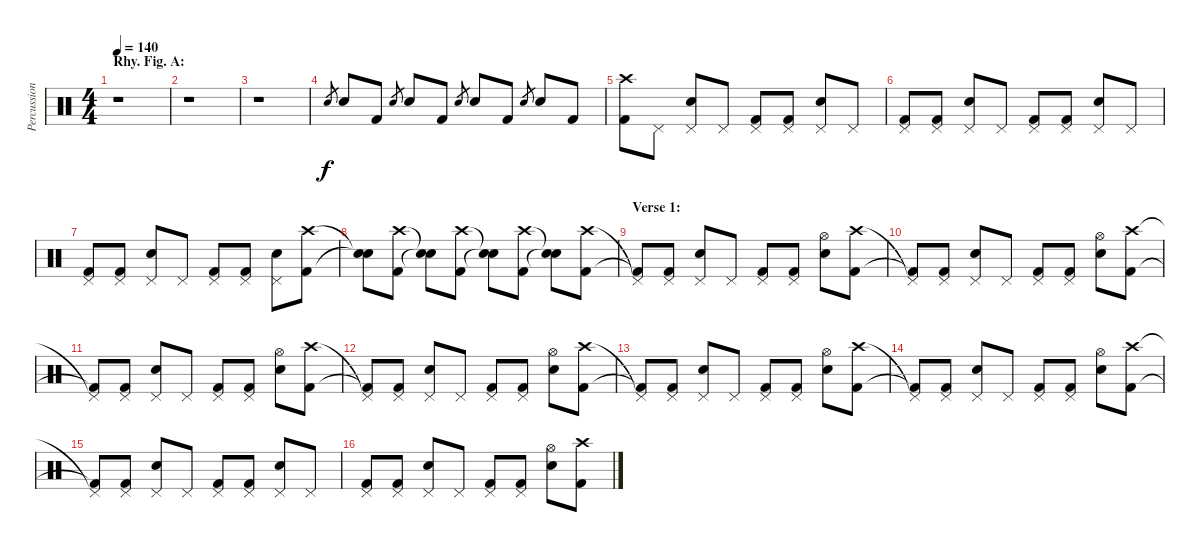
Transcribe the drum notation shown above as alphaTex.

\track ("Percussion" "Percussion") {instrument percussion}
\staff {score}
\articulation defaults
\ts (4 4)
\section ("" "Rhy. Fig. A:")
\tempo 140
\clef neutral
\ks c
r.1{dy f} |
r.1 |
r.1 |
"Snare (hit) 2".8{gr} "Snare (hit) 2".8 "Kick (hit) 2".8 "Snare (hit) 2".8{gr} "Snare (hit) 2".8 "Kick (hit) 2".8 "Snare (hit) 2".8{gr} "Snare (hit) 2".8 "Kick (hit) 2".8 "Snare (hit) 2".8{gr} "Snare (hit) 2".8 "Kick (hit) 2".8 |
("Crash high (hit)" "Kick (hit) 2").8 "Pedal Hi-Hat (hit)".8 ("Pedal Hi-Hat (hit)" "Snare (hit) 2").8 "Pedal Hi-Hat (hit)".8 ("Pedal Hi-Hat (hit)" "Kick (hit) 2").8 ("Pedal Hi-Hat (hit)" "Kick (hit) 2").8 ("Pedal Hi-Hat (hit)" "Snare (hit) 2").8 "Pedal Hi-Hat (hit)".8 |
("Pedal Hi-Hat (hit)" "Kick (hit) 2").8 ("Pedal Hi-Hat (hit)" "Kick (hit) 2").8 ("Pedal Hi-Hat (hit)" "Snare (hit) 2").8 "Pedal Hi-Hat (hit)".8 ("Pedal Hi-Hat (hit)" "Kick (hit) 2").8 ("Pedal Hi-Hat (hit)" "Kick (hit) 2").8 ("Pedal Hi-Hat (hit)" "Snare (hit) 2").8 "Pedal Hi-Hat (hit)".8 |
("Pedal Hi-Hat (hit)" "Kick (hit) 2").8 ("Pedal Hi-Hat (hit)" "Kick (hit) 2").8 ("Pedal Hi-Hat (hit)" "Snare (hit) 2").8 "Pedal Hi-Hat (hit)".8 ("Pedal Hi-Hat (hit)" "Kick (hit) 2").8 ("Pedal Hi-Hat (hit)" "Kick (hit) 2").8 ("Pedal Hi-Hat (hit)" "Snare (hit) 2").8 ("Crash high (hit)" "Kick (hit) 2").8 |
("Snare (hit)"{t} "Snare (hit)"{t}).8 ("Crash high (hit)" "Kick (hit) 2").8 ("Snare (hit)"{t} "Snare (hit)"{t}).8 ("Crash high (hit)" "Kick (hit) 2").8 ("Snare (hit)"{t} "Snare (hit)"{t}).8 ("Crash high (hit)" "Kick (hit) 2").8 ("Snare (hit)"{t} "Snare (hit)"{t}).8 ("Crash high (hit)" "Kick (hit) 2").8 |
\section ("" "Verse 1:")
("Pedal Hi-Hat (hit)"{t} "Kick (hit) 2"{t}).8 ("Pedal Hi-Hat (hit)" "Kick (hit) 2").8 ("Pedal Hi-Hat (hit)" "Snare (hit) 2").8 "Pedal Hi-Hat (hit)".8 ("Pedal Hi-Hat (hit)" "Kick (hit) 2").8 ("Pedal Hi-Hat (hit)" "Kick (hit) 2").8 ("Hi-Hat (open)" "Snare (hit) 2").8 ("Crash high (hit)" "Kick (hit) 2").8 |
("Pedal Hi-Hat (hit)"{t} "Kick (hit) 2"{t}).8 ("Pedal Hi-Hat (hit)" "Kick (hit) 2").8 ("Pedal Hi-Hat (hit)" "Snare (hit) 2").8 "Pedal Hi-Hat (hit)".8 ("Pedal Hi-Hat (hit)" "Kick (hit) 2").8 ("Pedal Hi-Hat (hit)" "Kick (hit) 2").8 ("Hi-Hat (open)" "Snare (hit) 2").8 ("Crash high (hit)" "Kick (hit) 2").8 |
("Pedal Hi-Hat (hit)"{t} "Kick (hit) 2"{t}).8 ("Pedal Hi-Hat (hit)" "Kick (hit) 2").8 ("Pedal Hi-Hat (hit)" "Snare (hit) 2").8 "Pedal Hi-Hat (hit)".8 ("Pedal Hi-Hat (hit)" "Kick (hit) 2").8 ("Pedal Hi-Hat (hit)" "Kick (hit) 2").8 ("Hi-Hat (open)" "Snare (hit) 2").8 ("Crash high (hit)" "Kick (hit) 2").8 |
("Pedal Hi-Hat (hit)"{t} "Kick (hit) 2"{t}).8 ("Pedal Hi-Hat (hit)" "Kick (hit) 2").8 ("Pedal Hi-Hat (hit)" "Snare (hit) 2").8 "Pedal Hi-Hat (hit)".8 ("Pedal Hi-Hat (hit)" "Kick (hit) 2").8 ("Pedal Hi-Hat (hit)" "Kick (hit) 2").8 ("Hi-Hat (open)" "Snare (hit) 2").8 ("Crash high (hit)" "Kick (hit) 2").8 |
("Pedal Hi-Hat (hit)"{t} "Kick (hit) 2"{t}).8 ("Pedal Hi-Hat (hit)" "Kick (hit) 2").8 ("Pedal Hi-Hat (hit)" "Snare (hit) 2").8 "Pedal Hi-Hat (hit)".8 ("Pedal Hi-Hat (hit)" "Kick (hit) 2").8 ("Pedal Hi-Hat (hit)" "Kick (hit) 2").8 ("Hi-Hat (open)" "Snare (hit) 2").8 ("Crash high (hit)" "Kick (hit) 2").8 |
("Pedal Hi-Hat (hit)"{t} "Kick (hit) 2"{t}).8 ("Pedal Hi-Hat (hit)" "Kick (hit) 2").8 ("Pedal Hi-Hat (hit)" "Snare (hit) 2").8 "Pedal Hi-Hat (hit)".8 ("Pedal Hi-Hat (hit)" "Kick (hit) 2").8 ("Pedal Hi-Hat (hit)" "Kick (hit) 2").8 ("Hi-Hat (open)" "Snare (hit) 2").8 ("Crash high (hit)" "Kick (hit) 2").8 |
("Pedal Hi-Hat (hit)"{t} "Kick (hit) 2"{t}).8 ("Pedal Hi-Hat (hit)" "Kick (hit) 2").8 ("Pedal Hi-Hat (hit)" "Snare (hit) 2").8 "Pedal Hi-Hat (hit)".8 ("Pedal Hi-Hat (hit)" "Kick (hit) 2").8 ("Pedal Hi-Hat (hit)" "Kick (hit) 2").8 ("Pedal Hi-Hat (hit)" "Snare (hit) 2").8 "Pedal Hi-Hat (hit)".8 |
("Pedal Hi-Hat (hit)" "Kick (hit) 2").8 ("Pedal Hi-Hat (hit)" "Kick (hit) 2").8 ("Pedal Hi-Hat (hit)" "Snare (hit) 2").8 "Pedal Hi-Hat (hit)".8 ("Pedal Hi-Hat (hit)" "Kick (hit) 2").8 ("Pedal Hi-Hat (hit)" "Kick (hit) 2").8 ("Hi-Hat (open)" "Snare (hit) 2").8 ("Crash high (hit)" "Kick (hit) 2").8
